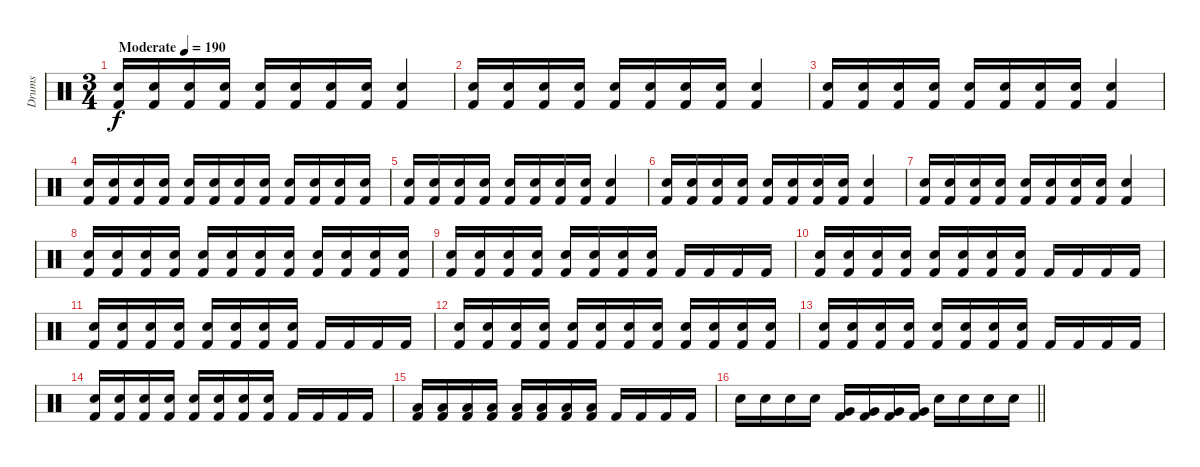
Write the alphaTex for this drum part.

\track ("Drums" "Drums") {instrument percussion}
\staff {score}
\articulation defaults
\ts (3 4)
\tempo (190 "Moderate")
\clef neutral
\ks c
("Electric Snare (hit)" "Kick (hit) 2").16{dy f} ("Electric Snare (hit)" "Kick (hit) 2").16 ("Electric Snare (hit)" "Kick (hit) 2").16 ("Electric Snare (hit)" "Kick (hit) 2").16 ("Electric Snare (hit)" "Kick (hit) 2").16 ("Electric Snare (hit)" "Kick (hit) 2").16 ("Electric Snare (hit)" "Kick (hit) 2").16 ("Electric Snare (hit)" "Kick (hit) 2").16 ("Electric Snare (hit)" "Kick (hit) 2").4 |
("Electric Snare (hit)" "Kick (hit) 2").16 ("Electric Snare (hit)" "Kick (hit) 2").16 ("Electric Snare (hit)" "Kick (hit) 2").16 ("Electric Snare (hit)" "Kick (hit) 2").16 ("Electric Snare (hit)" "Kick (hit) 2").16 ("Electric Snare (hit)" "Kick (hit) 2").16 ("Electric Snare (hit)" "Kick (hit) 2").16 ("Electric Snare (hit)" "Kick (hit) 2").16 ("Electric Snare (hit)" "Kick (hit) 2").4 |
("Electric Snare (hit)" "Kick (hit) 2").16 ("Electric Snare (hit)" "Kick (hit) 2").16 ("Electric Snare (hit)" "Kick (hit) 2").16 ("Electric Snare (hit)" "Kick (hit) 2").16 ("Electric Snare (hit)" "Kick (hit) 2").16 ("Electric Snare (hit)" "Kick (hit) 2").16 ("Electric Snare (hit)" "Kick (hit) 2").16 ("Electric Snare (hit)" "Kick (hit) 2").16 ("Electric Snare (hit)" "Kick (hit) 2").4 |
("Electric Snare (hit)" "Kick (hit) 2").16 ("Electric Snare (hit)" "Kick (hit) 2").16 ("Electric Snare (hit)" "Kick (hit) 2").16 ("Electric Snare (hit)" "Kick (hit) 2").16 ("Electric Snare (hit)" "Kick (hit) 2").16 ("Electric Snare (hit)" "Kick (hit) 2").16 ("Electric Snare (hit)" "Kick (hit) 2").16 ("Electric Snare (hit)" "Kick (hit) 2").16 ("Electric Snare (hit)" "Kick (hit) 2").16 ("Electric Snare (hit)" "Kick (hit) 2").16 ("Electric Snare (hit)" "Kick (hit) 2").16 ("Electric Snare (hit)" "Kick (hit) 2").16 |
("Electric Snare (hit)" "Kick (hit) 2").16 ("Electric Snare (hit)" "Kick (hit) 2").16 ("Electric Snare (hit)" "Kick (hit) 2").16 ("Electric Snare (hit)" "Kick (hit) 2").16 ("Electric Snare (hit)" "Kick (hit) 2").16 ("Electric Snare (hit)" "Kick (hit) 2").16 ("Electric Snare (hit)" "Kick (hit) 2").16 ("Electric Snare (hit)" "Kick (hit) 2").16 ("Electric Snare (hit)" "Kick (hit) 2").4 |
("Electric Snare (hit)" "Kick (hit) 2").16 ("Electric Snare (hit)" "Kick (hit) 2").16 ("Electric Snare (hit)" "Kick (hit) 2").16 ("Electric Snare (hit)" "Kick (hit) 2").16 ("Electric Snare (hit)" "Kick (hit) 2").16 ("Electric Snare (hit)" "Kick (hit) 2").16 ("Electric Snare (hit)" "Kick (hit) 2").16 ("Electric Snare (hit)" "Kick (hit) 2").16 ("Electric Snare (hit)" "Kick (hit) 2").4 |
("Electric Snare (hit)" "Kick (hit) 2").16 ("Electric Snare (hit)" "Kick (hit) 2").16 ("Electric Snare (hit)" "Kick (hit) 2").16 ("Electric Snare (hit)" "Kick (hit) 2").16 ("Electric Snare (hit)" "Kick (hit) 2").16 ("Electric Snare (hit)" "Kick (hit) 2").16 ("Electric Snare (hit)" "Kick (hit) 2").16 ("Electric Snare (hit)" "Kick (hit) 2").16 ("Electric Snare (hit)" "Kick (hit) 2").4 |
("Electric Snare (hit)" "Kick (hit) 2").16 ("Electric Snare (hit)" "Kick (hit) 2").16 ("Electric Snare (hit)" "Kick (hit) 2").16 ("Electric Snare (hit)" "Kick (hit) 2").16 ("Electric Snare (hit)" "Kick (hit) 2").16 ("Electric Snare (hit)" "Kick (hit) 2").16 ("Electric Snare (hit)" "Kick (hit) 2").16 ("Electric Snare (hit)" "Kick (hit) 2").16 ("Electric Snare (hit)" "Kick (hit) 2").16 ("Electric Snare (hit)" "Kick (hit) 2").16 ("Electric Snare (hit)" "Kick (hit) 2").16 ("Electric Snare (hit)" "Kick (hit) 2").16 |
("Electric Snare (hit)" "Kick (hit) 2").16 ("Electric Snare (hit)" "Kick (hit) 2").16 ("Electric Snare (hit)" "Kick (hit) 2").16 ("Electric Snare (hit)" "Kick (hit) 2").16 ("Electric Snare (hit)" "Kick (hit) 2").16 ("Electric Snare (hit)" "Kick (hit) 2").16 ("Electric Snare (hit)" "Kick (hit) 2").16 ("Electric Snare (hit)" "Kick (hit) 2").16 "Kick (hit) 2".16 "Kick (hit) 2".16 "Kick (hit) 2".16 "Kick (hit) 2".16 |
("Electric Snare (hit)" "Kick (hit) 2").16 ("Electric Snare (hit)" "Kick (hit) 2").16 ("Electric Snare (hit)" "Kick (hit) 2").16 ("Electric Snare (hit)" "Kick (hit) 2").16 ("Electric Snare (hit)" "Kick (hit) 2").16 ("Electric Snare (hit)" "Kick (hit) 2").16 ("Electric Snare (hit)" "Kick (hit) 2").16 ("Electric Snare (hit)" "Kick (hit) 2").16 "Kick (hit) 2".16 "Kick (hit) 2".16 "Kick (hit) 2".16 "Kick (hit) 2".16 |
("Electric Snare (hit)" "Kick (hit) 2").16 ("Electric Snare (hit)" "Kick (hit) 2").16 ("Electric Snare (hit)" "Kick (hit) 2").16 ("Electric Snare (hit)" "Kick (hit) 2").16 ("Electric Snare (hit)" "Kick (hit) 2").16 ("Electric Snare (hit)" "Kick (hit) 2").16 ("Electric Snare (hit)" "Kick (hit) 2").16 ("Electric Snare (hit)" "Kick (hit) 2").16 "Kick (hit) 2".16 "Kick (hit) 2".16 "Kick (hit) 2".16 "Kick (hit) 2".16 |
("Electric Snare (hit)" "Kick (hit) 2").16 ("Electric Snare (hit)" "Kick (hit) 2").16 ("Electric Snare (hit)" "Kick (hit) 2").16 ("Electric Snare (hit)" "Kick (hit) 2").16 ("Electric Snare (hit)" "Kick (hit) 2").16 ("Electric Snare (hit)" "Kick (hit) 2").16 ("Electric Snare (hit)" "Kick (hit) 2").16 ("Electric Snare (hit)" "Kick (hit) 2").16 ("Electric Snare (hit)" "Kick (hit) 2").16 ("Electric Snare (hit)" "Kick (hit) 2").16 ("Electric Snare (hit)" "Kick (hit) 2").16 ("Electric Snare (hit)" "Kick (hit) 2").16 |
("Electric Snare (hit)" "Kick (hit) 2").16 ("Electric Snare (hit)" "Kick (hit) 2").16 ("Electric Snare (hit)" "Kick (hit) 2").16 ("Electric Snare (hit)" "Kick (hit) 2").16 ("Electric Snare (hit)" "Kick (hit) 2").16 ("Electric Snare (hit)" "Kick (hit) 2").16 ("Electric Snare (hit)" "Kick (hit) 2").16 ("Electric Snare (hit)" "Kick (hit) 2").16 "Kick (hit) 2".16 "Kick (hit) 2".16 "Kick (hit) 2".16 "Kick (hit) 2".16 |
("Electric Snare (hit)" "Kick (hit) 2").16 ("Electric Snare (hit)" "Kick (hit) 2").16 ("Electric Snare (hit)" "Kick (hit) 2").16 ("Electric Snare (hit)" "Kick (hit) 2").16 ("Electric Snare (hit)" "Kick (hit) 2").16 ("Electric Snare (hit)" "Kick (hit) 2").16 ("Electric Snare (hit)" "Kick (hit) 2").16 ("Electric Snare (hit)" "Kick (hit) 2").16 "Kick (hit) 2".16 "Kick (hit) 2".16 "Kick (hit) 2".16 "Kick (hit) 2".16 |
("Low Tom (hit)" "Kick (hit) 2").16 ("Low Tom (hit)" "Kick (hit) 2").16 ("Low Tom (hit)" "Kick (hit) 2").16 ("Low Tom (hit)" "Kick (hit) 2").16 ("Low Tom (hit)" "Kick (hit) 2").16 ("Low Tom (hit)" "Kick (hit) 2").16 ("Low Tom (hit)" "Kick (hit) 2").16 ("Low Tom (hit)" "Kick (hit) 2").16 "Kick (hit) 2".16 "Kick (hit) 2".16 "Kick (hit) 2".16 "Kick (hit) 2".16 |
\barLineRight lightlight "Electric Snare (hit)".16 "Electric Snare (hit)".16 "Electric Snare (hit)".16 "Electric Snare (hit)".16
("Very Low Tom (hit)" "Kick (hit) 2").16 ("Very Low Tom (hit)" "Kick (hit) 2").16 ("Very Low Tom (hit)" "Kick (hit) 2").16 ("Very Low Tom (hit)" "Kick (hit) 2").16 "Electric Snare (hit)".16 "Electric Snare (hit)".16 "Electric Snare (hit)".16 "Electric Snare (hit)".16
